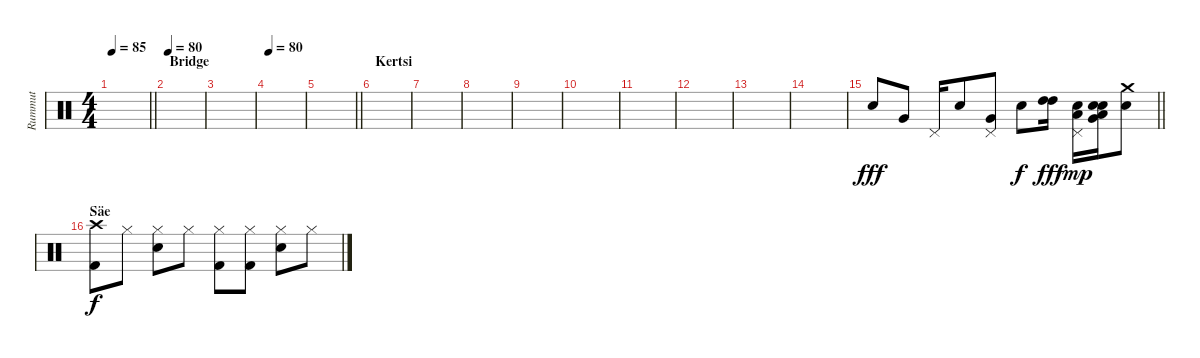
\track ("Rummut" "Rummut") {instrument percussion}
\staff {score}
\articulation defaults
\ts (4 4)
\tempo 85
\clef neutral
\barLineRight lightlight
\ks c
|
\section ("" "Bridge")
\tempo 80
|
|
\tempo 80
|
\barLineRight lightlight
|
\section ("" "Kertsi")
|
|
|
|
|
|
|
|
|
\barLineRight lightlight "Electric Snare (hit)".8{dy fff} "Very Low Tom (hit)".8 "Pedal Hi-Hat (hit)".16 "Electric Snare (hit)".8
("Very Low Tom (hit)" "Pedal Hi-Hat (hit)").8 "Electric Snare (hit)".8{dy f} ("High Tom (hit)" "High Tom (hit)").16{dy fff} ("Low Tom (hit)" "Pedal Hi-Hat (hit)" "Electric Snare (hit)").16{dy mp} ("Low Tom (hit)" "Electric Snare (hit)" "Very Low Tom (hit)" "Electric Snare (hit)").16 ("Crash medium (hit)" "Electric Snare (hit)").8 |
\section ("" "Säe")
("Crash high (hit)" "Kick (hit) 2").8{dy f} "Hi-Hat (closed)".8 ("Hi-Hat (closed)" "Snare (hit) 2").8 "Hi-Hat (closed)".8 ("Hi-Hat (closed)" "Kick (hit) 2").8 ("Hi-Hat (closed)" "Kick (hit) 2").8 ("Hi-Hat (closed)" "Snare (hit) 2").8 "Hi-Hat (closed)".8
